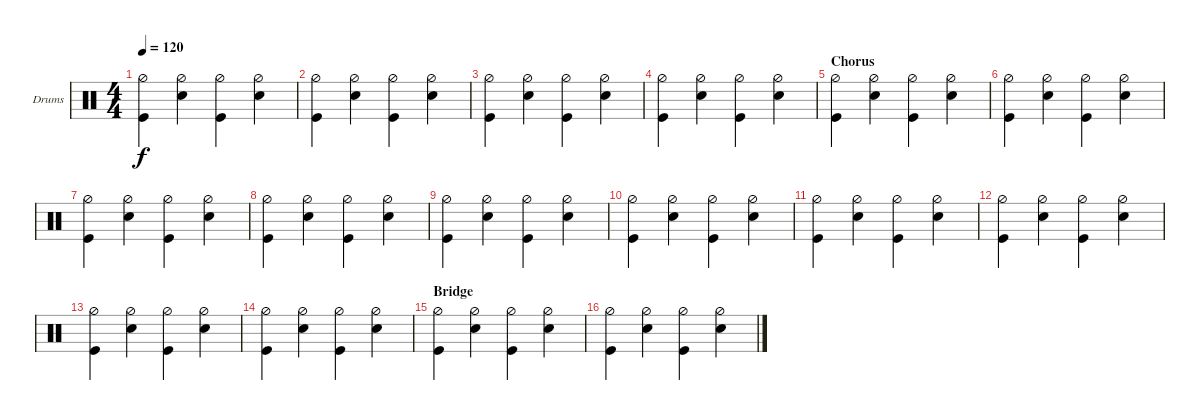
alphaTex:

\defaultSystemsLayout 4
\bracketExtendMode groupsimilarinstruments
\firstSystemTrackNameOrientation horizontal
\otherSystemsTrackNameOrientation horizontal
\track ("Drumkit" "Drums") {instrument percussion}
\staff {score}
\articulation defaults
\ts (4 4)
\tempo 120
\clef neutral
\ks c
("Kick (hit)" "Hi-Hat (half)").4{dy f} ("Snare (hit) 2" "Hi-Hat (half)").4 ("Kick (hit)" "Hi-Hat (half)").4 ("Snare (hit) 2" "Hi-Hat (half)").4 |
("Kick (hit)" "Hi-Hat (half)").4 ("Snare (hit) 2" "Hi-Hat (half)").4 ("Kick (hit)" "Hi-Hat (half)").4 ("Snare (hit) 2" "Hi-Hat (half)").4 |
("Kick (hit)" "Hi-Hat (half)").4 ("Snare (hit) 2" "Hi-Hat (half)").4 ("Kick (hit)" "Hi-Hat (half)").4 ("Snare (hit) 2" "Hi-Hat (half)").4 |
("Kick (hit)" "Hi-Hat (half)").4 ("Snare (hit) 2" "Hi-Hat (half)").4 ("Kick (hit)" "Hi-Hat (half)").4 ("Snare (hit) 2" "Hi-Hat (half)").4 |
\section ("" "Chorus")
("Kick (hit)" "Hi-Hat (half)").4 ("Snare (hit) 2" "Hi-Hat (half)").4 ("Kick (hit)" "Hi-Hat (half)").4 ("Snare (hit) 2" "Hi-Hat (half)").4 |
("Kick (hit)" "Hi-Hat (half)").4 ("Snare (hit) 2" "Hi-Hat (half)").4 ("Kick (hit)" "Hi-Hat (half)").4 ("Snare (hit) 2" "Hi-Hat (half)").4 |
("Kick (hit)" "Hi-Hat (half)").4 ("Snare (hit) 2" "Hi-Hat (half)").4 ("Kick (hit)" "Hi-Hat (half)").4 ("Snare (hit) 2" "Hi-Hat (half)").4 |
("Kick (hit)" "Hi-Hat (half)").4 ("Snare (hit) 2" "Hi-Hat (half)").4 ("Kick (hit)" "Hi-Hat (half)").4 ("Snare (hit) 2" "Hi-Hat (half)").4 |
("Kick (hit)" "Hi-Hat (half)").4 ("Snare (hit) 2" "Hi-Hat (half)").4 ("Kick (hit)" "Hi-Hat (half)").4 ("Snare (hit) 2" "Hi-Hat (half)").4 |
("Kick (hit)" "Hi-Hat (half)").4 ("Snare (hit) 2" "Hi-Hat (half)").4 ("Kick (hit)" "Hi-Hat (half)").4 ("Snare (hit) 2" "Hi-Hat (half)").4 |
("Kick (hit)" "Hi-Hat (half)").4 ("Snare (hit) 2" "Hi-Hat (half)").4 ("Kick (hit)" "Hi-Hat (half)").4 ("Snare (hit) 2" "Hi-Hat (half)").4 |
("Kick (hit)" "Hi-Hat (half)").4 ("Snare (hit) 2" "Hi-Hat (half)").4 ("Kick (hit)" "Hi-Hat (half)").4 ("Snare (hit) 2" "Hi-Hat (half)").4 |
("Kick (hit)" "Hi-Hat (half)").4 ("Snare (hit) 2" "Hi-Hat (half)").4 ("Kick (hit)" "Hi-Hat (half)").4 ("Snare (hit) 2" "Hi-Hat (half)").4 |
("Kick (hit)" "Hi-Hat (half)").4 ("Snare (hit) 2" "Hi-Hat (half)").4 ("Kick (hit)" "Hi-Hat (half)").4 ("Snare (hit) 2" "Hi-Hat (half)").4 |
\section ("" "Bridge")
("Kick (hit)" "Hi-Hat (half)").4 ("Snare (hit) 2" "Hi-Hat (half)").4 ("Kick (hit)" "Hi-Hat (half)").4 ("Snare (hit) 2" "Hi-Hat (half)").4 |
("Kick (hit)" "Hi-Hat (half)").4 ("Snare (hit) 2" "Hi-Hat (half)").4 ("Kick (hit)" "Hi-Hat (half)").4 ("Snare (hit) 2" "Hi-Hat (half)").4
